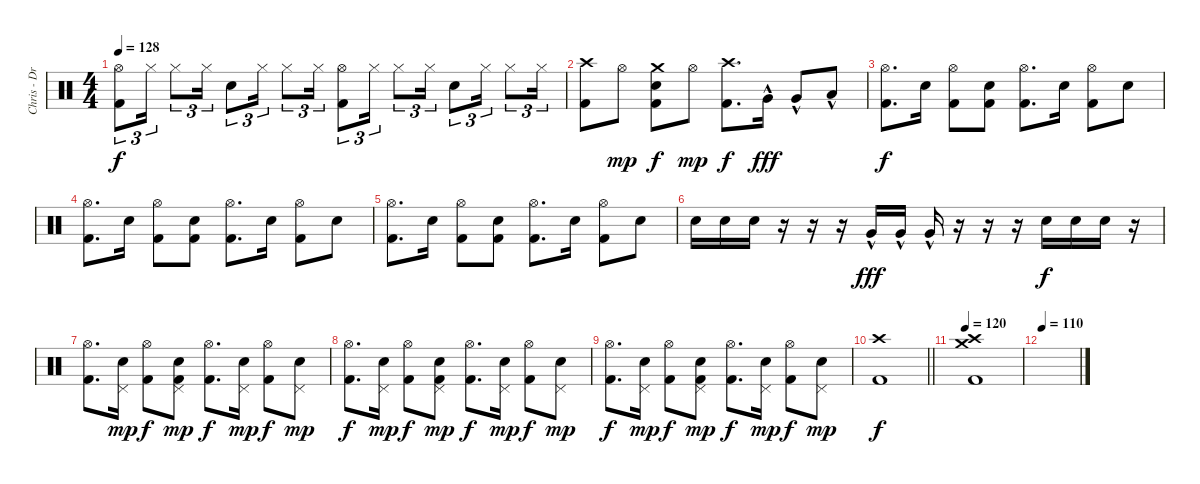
\track ("Chris - Drums" "Chris - Dr") {instrument percussion}
\staff {score}
\articulation defaults
\ts (4 4)
\tempo 128
\clef neutral
\ks c
("Hi-Hat (open)" "Kick (hit) 2").8{tu (3 2) dy f} "Hi-Hat (closed)".16{tu (3 2)} "Hi-Hat (closed)".8{tu (3 2)} "Hi-Hat (closed)".16{tu (3 2)} "Electric Snare (hit)".8{tu (3 2)} "Hi-Hat (closed)".16{tu (3 2)} "Hi-Hat (closed)".8{tu (3 2)} "Hi-Hat (closed)".16{tu (3 2)} ("Hi-Hat (open)" "Kick (hit) 2").8{tu (3 2)} "Hi-Hat (closed)".16{tu (3 2)} "Hi-Hat (closed)".8{tu (3 2)} "Hi-Hat (closed)".16{tu (3 2)} "Electric Snare (hit)".8{tu (3 2)} "Hi-Hat (closed)".16{tu (3 2)} "Hi-Hat (closed)".8{tu (3 2)} "Hi-Hat (closed)".16{tu (3 2)} |
("Crash high (hit)" "Kick (hit) 2").8 "Hi-Hat (open)".8{dy mp} ("Crash medium (hit)" "Electric Snare (hit)" "Kick (hit) 2").8{dy f} "Hi-Hat (open)".8{dy mp} ("Crash high (hit)" "Kick (hit) 2").8{d dy f} "Very Low Tom (hit)"{hac}.16{dy fff} "Very Low Tom (hit)"{hac}.8 "Low Floor Tom (hit)"{hac}.8 |
("Hi-Hat (open)" "Kick (hit) 2").8{d dy f} "Electric Snare (hit)".16 ("Hi-Hat (open)" "Kick (hit) 2").8 ("Electric Snare (hit)" "Kick (hit) 2").8 ("Hi-Hat (open)" "Kick (hit) 2").8{d} "Electric Snare (hit)".16 ("Hi-Hat (open)" "Kick (hit) 2").8 "Electric Snare (hit)".8 |
("Hi-Hat (open)" "Kick (hit) 2").8{d} "Electric Snare (hit)".16 ("Hi-Hat (open)" "Kick (hit) 2").8 ("Electric Snare (hit)" "Kick (hit) 2").8 ("Hi-Hat (open)" "Kick (hit) 2").8{d} "Electric Snare (hit)".16 ("Hi-Hat (open)" "Kick (hit) 2").8 "Electric Snare (hit)".8 |
("Hi-Hat (open)" "Kick (hit) 2").8{d} "Electric Snare (hit)".16 ("Hi-Hat (open)" "Kick (hit) 2").8 ("Electric Snare (hit)" "Kick (hit) 2").8 ("Hi-Hat (open)" "Kick (hit) 2").8{d} "Electric Snare (hit)".16 ("Hi-Hat (open)" "Kick (hit) 2").8 "Electric Snare (hit)".8 |
"Electric Snare (hit)".16 "Electric Snare (hit)".16 "Electric Snare (hit)".16 r.16 r.16 r.16 "Very Low Tom (hit)"{hac}.16{dy fff} "Very Low Tom (hit)"{hac}.16 "Very Low Tom (hit)"{hac}.16 r.16 r.16 r.16 "Electric Snare (hit)".16{dy f} "Electric Snare (hit)".16 "Electric Snare (hit)".16 r.16 |
("Hi-Hat (open)" "Kick (hit) 2").8{d} ("Pedal Hi-Hat (hit)" "Electric Snare (hit)").16{dy mp} ("Hi-Hat (open)" "Kick (hit) 2").8{dy f} ("Pedal Hi-Hat (hit)" "Electric Snare (hit)" "Kick (hit) 2").8{dy mp} ("Hi-Hat (open)" "Kick (hit) 2").8{d dy f} ("Pedal Hi-Hat (hit)" "Electric Snare (hit)").16{dy mp} ("Hi-Hat (open)" "Kick (hit) 2").8{dy f} ("Pedal Hi-Hat (hit)" "Electric Snare (hit)").8{dy mp} |
("Hi-Hat (open)" "Kick (hit) 2").8{d dy f} ("Pedal Hi-Hat (hit)" "Electric Snare (hit)").16{dy mp} ("Hi-Hat (open)" "Kick (hit) 2").8{dy f} ("Pedal Hi-Hat (hit)" "Electric Snare (hit)" "Kick (hit) 2").8{dy mp} ("Hi-Hat (open)" "Kick (hit) 2").8{d dy f} ("Pedal Hi-Hat (hit)" "Electric Snare (hit)").16{dy mp} ("Hi-Hat (open)" "Kick (hit) 2").8{dy f} ("Pedal Hi-Hat (hit)" "Electric Snare (hit)").8{dy mp} |
("Hi-Hat (open)" "Kick (hit) 2").8{d dy f} ("Pedal Hi-Hat (hit)" "Electric Snare (hit)").16{dy mp} ("Hi-Hat (open)" "Kick (hit) 2").8{dy f} ("Pedal Hi-Hat (hit)" "Electric Snare (hit)" "Kick (hit) 2").8{dy mp} ("Hi-Hat (open)" "Kick (hit) 2").8{d dy f} ("Pedal Hi-Hat (hit)" "Electric Snare (hit)").16{dy mp} ("Hi-Hat (open)" "Kick (hit) 2").8{dy f} ("Pedal Hi-Hat (hit)" "Electric Snare (hit)").8{dy mp} |
\barLineRight lightlight
("Crash high (hit)" "Kick (hit) 2").1{dy f} |
\tempo 120
("Crash high (hit)" "Crash medium (hit)" "Kick (hit) 2").1 |
\tempo 110
